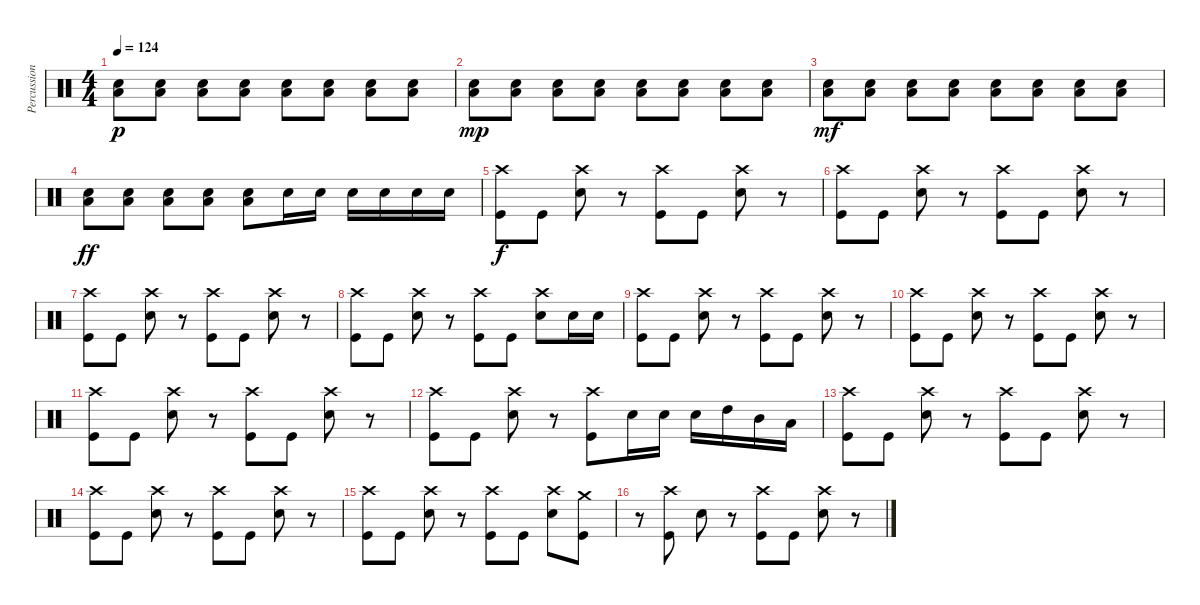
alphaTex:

\track ("Percussion" "Percussion") {instrument percussion}
\staff {score}
\articulation defaults
\ts (4 4)
\tempo 124
\clef neutral
\ks c
("Low Floor Tom (hit)" "Snare (hit) 2").8{dy p} ("Low Floor Tom (hit)" "Snare (hit) 2").8 ("Low Floor Tom (hit)" "Snare (hit) 2").8 ("Low Floor Tom (hit)" "Snare (hit) 2").8 ("Low Floor Tom (hit)" "Snare (hit) 2").8 ("Low Floor Tom (hit)" "Snare (hit) 2").8 ("Low Floor Tom (hit)" "Snare (hit) 2").8 ("Low Floor Tom (hit)" "Snare (hit) 2").8 |
("Low Floor Tom (hit)" "Snare (hit) 2").8{dy mp} ("Low Floor Tom (hit)" "Snare (hit) 2").8 ("Low Floor Tom (hit)" "Snare (hit) 2").8 ("Low Floor Tom (hit)" "Snare (hit) 2").8 ("Low Floor Tom (hit)" "Snare (hit) 2").8 ("Low Floor Tom (hit)" "Snare (hit) 2").8 ("Low Floor Tom (hit)" "Snare (hit) 2").8 ("Low Floor Tom (hit)" "Snare (hit) 2").8 |
("Low Floor Tom (hit)" "Snare (hit) 2").8{dy mf} ("Low Floor Tom (hit)" "Snare (hit) 2").8 ("Low Floor Tom (hit)" "Snare (hit) 2").8 ("Low Floor Tom (hit)" "Snare (hit) 2").8 ("Low Floor Tom (hit)" "Snare (hit) 2").8 ("Low Floor Tom (hit)" "Snare (hit) 2").8 ("Low Floor Tom (hit)" "Snare (hit) 2").8 ("Low Floor Tom (hit)" "Snare (hit) 2").8 |
("Low Floor Tom (hit)" "Snare (hit) 2").8{dy ff} ("Low Floor Tom (hit)" "Snare (hit) 2").8 ("Low Floor Tom (hit)" "Snare (hit) 2").8 ("Low Floor Tom (hit)" "Snare (hit) 2").8 ("Low Floor Tom (hit)" "Snare (hit) 2").8 "Snare (hit) 2".16 "Snare (hit) 2".16 "Snare (hit) 2".16 "Snare (hit) 2".16 "Snare (hit) 2".16 "Snare (hit) 2".16 |
("Crash high (hit)" "Kick (hit)").8{dy f} "Kick (hit)".8 ("Crash high (hit)" "Snare (hit) 2").8 r.8 ("Crash high (hit)" "Kick (hit)").8 "Kick (hit)".8 ("Crash high (hit)" "Snare (hit) 2").8 r.8 |
("Crash high (hit)" "Kick (hit)").8 "Kick (hit)".8 ("Crash high (hit)" "Snare (hit) 2").8 r.8 ("Crash high (hit)" "Kick (hit)").8 "Kick (hit)".8 ("Crash high (hit)" "Snare (hit) 2").8 r.8 |
("Crash high (hit)" "Kick (hit)").8 "Kick (hit)".8 ("Crash high (hit)" "Snare (hit) 2").8 r.8 ("Crash high (hit)" "Kick (hit)").8 "Kick (hit)".8 ("Crash high (hit)" "Snare (hit) 2").8 r.8 |
("Crash high (hit)" "Kick (hit)").8 "Kick (hit)".8 ("Crash high (hit)" "Snare (hit) 2").8 r.8 ("Crash high (hit)" "Kick (hit)").8 "Kick (hit)".8 ("Crash high (hit)" "Snare (hit) 2").8 "Snare (hit) 2".16 "Snare (hit) 2".16 |
("Crash high (hit)" "Kick (hit)").8 "Kick (hit)".8 ("Crash high (hit)" "Snare (hit) 2").8 r.8 ("Crash high (hit)" "Kick (hit)").8 "Kick (hit)".8 ("Crash high (hit)" "Snare (hit) 2").8 r.8 |
("Crash high (hit)" "Kick (hit)").8 "Kick (hit)".8 ("Crash high (hit)" "Snare (hit) 2").8 r.8 ("Crash high (hit)" "Kick (hit)").8 "Kick (hit)".8 ("Crash high (hit)" "Snare (hit) 2").8 r.8 |
("Crash high (hit)" "Kick (hit)").8 "Kick (hit)".8 ("Crash high (hit)" "Snare (hit) 2").8 r.8 ("Crash high (hit)" "Kick (hit)").8 "Kick (hit)".8 ("Crash high (hit)" "Snare (hit) 2").8 r.8 |
("Crash high (hit)" "Kick (hit)").8 "Kick (hit)".8 ("Crash high (hit)" "Snare (hit) 2").8 r.8 ("Crash high (hit)" "Kick (hit)").8 "Snare (hit) 2".16 "Snare (hit) 2".16 "Snare (hit) 2".16 "High Tom (hit)".16 "Mid Tom (hit)".16 "Low Tom (hit)".16 |
("Crash high (hit)" "Kick (hit)").8 "Kick (hit)".8 ("Crash high (hit)" "Snare (hit) 2").8 r.8 ("Crash high (hit)" "Kick (hit)").8 "Kick (hit)".8 ("Crash high (hit)" "Snare (hit) 2").8 r.8 |
("Crash high (hit)" "Kick (hit)").8 "Kick (hit)".8 ("Crash high (hit)" "Snare (hit) 2").8 r.8 ("Crash high (hit)" "Kick (hit)").8 "Kick (hit)".8 ("Crash high (hit)" "Snare (hit) 2").8 r.8 |
("Crash high (hit)" "Kick (hit)").8 "Kick (hit)".8 ("Crash high (hit)" "Snare (hit) 2").8 r.8 ("Crash high (hit)" "Kick (hit)").8 "Kick (hit)".8 ("Crash high (hit)" "Snare (hit) 2").8 ("Crash medium (hit)" "Kick (hit)").8 |
r.8 ("Crash high (hit)" "Kick (hit)").8 "Snare (hit) 2".8 r.8 ("Crash high (hit)" "Kick (hit)").8 "Kick (hit)".8 ("Crash high (hit)" "Snare (hit) 2").8 r.8
